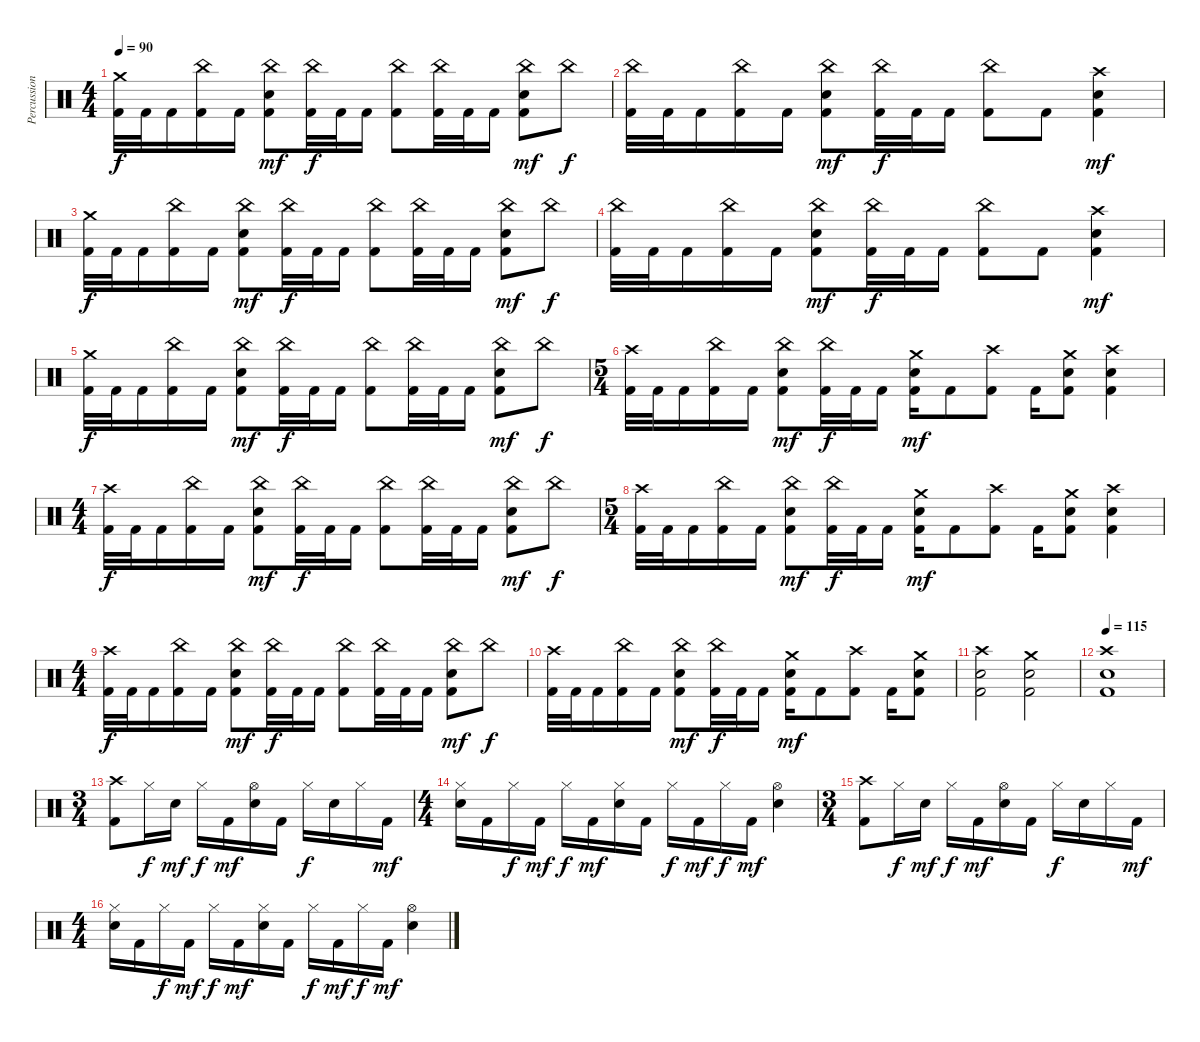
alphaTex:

\track ("Percussion" "Percussion") {instrument percussion}
\staff {score}
\articulation defaults
\ts (4 4)
\tempo 90
\clef neutral
\ks c
("Crash medium (hit)" "Kick (hit) 2").32{dy f} "Kick (hit) 2".32 "Kick (hit) 2".16 ("China (hit)" "Kick (hit) 2").16 "Kick (hit) 2".16 ("China (hit)" "Electric Snare (hit)" "Kick (hit) 2").8{dy mf} ("China (hit)" "Kick (hit) 2").32{dy f} "Kick (hit) 2".32 "Kick (hit) 2".16 ("China (hit)" "Kick (hit) 2").8 ("China (hit)" "Kick (hit) 2").32 "Kick (hit) 2".32 "Kick (hit) 2".16 ("China (hit)" "Electric Snare (hit)" "Kick (hit) 2").8{dy mf} "China (hit)".8{dy f} |
("China (hit)" "Kick (hit) 2").32 "Kick (hit) 2".32 "Kick (hit) 2".16 ("China (hit)" "Kick (hit) 2").16 "Kick (hit) 2".16 ("China (hit)" "Electric Snare (hit)" "Kick (hit) 2").8{dy mf} ("China (hit)" "Kick (hit) 2").32{dy f} "Kick (hit) 2".32 "Kick (hit) 2".16 ("China (hit)" "Kick (hit) 2").8 "Kick (hit) 2".8 ("Crash high (hit)" "Electric Snare (hit)" "Kick (hit) 2").4{dy mf} |
("Crash medium (hit)" "Kick (hit) 2").32{dy f} "Kick (hit) 2".32 "Kick (hit) 2".16 ("China (hit)" "Kick (hit) 2").16 "Kick (hit) 2".16 ("China (hit)" "Electric Snare (hit)" "Kick (hit) 2").8{dy mf} ("China (hit)" "Kick (hit) 2").32{dy f} "Kick (hit) 2".32 "Kick (hit) 2".16 ("China (hit)" "Kick (hit) 2").8 ("China (hit)" "Kick (hit) 2").32 "Kick (hit) 2".32 "Kick (hit) 2".16 ("China (hit)" "Electric Snare (hit)" "Kick (hit) 2").8{dy mf} "China (hit)".8{dy f} |
("China (hit)" "Kick (hit) 2").32 "Kick (hit) 2".32 "Kick (hit) 2".16 ("China (hit)" "Kick (hit) 2").16 "Kick (hit) 2".16 ("China (hit)" "Electric Snare (hit)" "Kick (hit) 2").8{dy mf} ("China (hit)" "Kick (hit) 2").32{dy f} "Kick (hit) 2".32 "Kick (hit) 2".16 ("China (hit)" "Kick (hit) 2").8 "Kick (hit) 2".8 ("Crash high (hit)" "Electric Snare (hit)" "Kick (hit) 2").4{dy mf} |
("Crash medium (hit)" "Kick (hit) 2").32{dy f} "Kick (hit) 2".32 "Kick (hit) 2".16 ("China (hit)" "Kick (hit) 2").16 "Kick (hit) 2".16 ("China (hit)" "Electric Snare (hit)" "Kick (hit) 2").8{dy mf} ("China (hit)" "Kick (hit) 2").32{dy f} "Kick (hit) 2".32 "Kick (hit) 2".16 ("China (hit)" "Kick (hit) 2").8 ("China (hit)" "Kick (hit) 2").32 "Kick (hit) 2".32 "Kick (hit) 2".16 ("China (hit)" "Electric Snare (hit)" "Kick (hit) 2").8{dy mf} "China (hit)".8{dy f} |
\ts (5 4)
("Crash high (hit)" "Kick (hit) 2").32 "Kick (hit) 2".32 "Kick (hit) 2".16 ("China (hit)" "Kick (hit) 2").16 "Kick (hit) 2".16 ("China (hit)" "Electric Snare (hit)" "Kick (hit) 2").8{dy mf} ("China (hit)" "Kick (hit) 2").32{dy f} "Kick (hit) 2".32 "Kick (hit) 2".16 ("Crash medium (hit)" "Electric Snare (hit)" "Kick (hit) 2").16{dy mf} "Kick (hit) 2".8 ("Crash high (hit)" "Kick (hit) 2").8 "Kick (hit) 2".16 ("Crash medium (hit)" "Electric Snare (hit)" "Kick (hit) 2").8 ("Crash high (hit)" "Electric Snare (hit)" "Kick (hit) 2").4 |
\ts (4 4)
("Crash high (hit)" "Kick (hit) 2").32{dy f} "Kick (hit) 2".32 "Kick (hit) 2".16 ("China (hit)" "Kick (hit) 2").16 "Kick (hit) 2".16 ("China (hit)" "Electric Snare (hit)" "Kick (hit) 2").8{dy mf} ("China (hit)" "Kick (hit) 2").32{dy f} "Kick (hit) 2".32 "Kick (hit) 2".16 ("China (hit)" "Kick (hit) 2").8 ("China (hit)" "Kick (hit) 2").32 "Kick (hit) 2".32 "Kick (hit) 2".16 ("China (hit)" "Electric Snare (hit)" "Kick (hit) 2").8{dy mf} "China (hit)".8{dy f} |
\ts (5 4)
("Crash high (hit)" "Kick (hit) 2").32 "Kick (hit) 2".32 "Kick (hit) 2".16 ("China (hit)" "Kick (hit) 2").16 "Kick (hit) 2".16 ("China (hit)" "Electric Snare (hit)" "Kick (hit) 2").8{dy mf} ("China (hit)" "Kick (hit) 2").32{dy f} "Kick (hit) 2".32 "Kick (hit) 2".16 ("Crash medium (hit)" "Electric Snare (hit)" "Kick (hit) 2").16{dy mf} "Kick (hit) 2".8 ("Crash high (hit)" "Kick (hit) 2").8 "Kick (hit) 2".16 ("Crash medium (hit)" "Electric Snare (hit)" "Kick (hit) 2").8 ("Crash high (hit)" "Electric Snare (hit)" "Kick (hit) 2").4 |
\ts (4 4)
("Crash high (hit)" "Kick (hit) 2").32{dy f} "Kick (hit) 2".32 "Kick (hit) 2".16 ("China (hit)" "Kick (hit) 2").16 "Kick (hit) 2".16 ("China (hit)" "Electric Snare (hit)" "Kick (hit) 2").8{dy mf} ("China (hit)" "Kick (hit) 2").32{dy f} "Kick (hit) 2".32 "Kick (hit) 2".16 ("China (hit)" "Kick (hit) 2").8 ("China (hit)" "Kick (hit) 2").32 "Kick (hit) 2".32 "Kick (hit) 2".16 ("China (hit)" "Electric Snare (hit)" "Kick (hit) 2").8{dy mf} "China (hit)".8{dy f} |
("Crash high (hit)" "Kick (hit) 2").32 "Kick (hit) 2".32 "Kick (hit) 2".16 ("China (hit)" "Kick (hit) 2").16 "Kick (hit) 2".16 ("China (hit)" "Electric Snare (hit)" "Kick (hit) 2").8{dy mf} ("China (hit)" "Kick (hit) 2").32{dy f} "Kick (hit) 2".32 "Kick (hit) 2".16 ("Crash medium (hit)" "Electric Snare (hit)" "Kick (hit) 2").16{dy mf} "Kick (hit) 2".8 ("Crash high (hit)" "Kick (hit) 2").8 "Kick (hit) 2".16 ("Crash medium (hit)" "Electric Snare (hit)" "Kick (hit) 2").8 |
("Crash high (hit)" "Electric Snare (hit)" "Kick (hit) 2").2 ("Crash medium (hit)" "Electric Snare (hit)" "Kick (hit) 2").2 |
\tempo 115
("Crash high (hit)" "Electric Snare (hit)" "Kick (hit) 2").1 |
\ts (3 4)
("Crash high (hit)" "Kick (hit) 2").8 "Hi-Hat (closed)".16{dy f} "Electric Snare (hit)".16{dy mf} "Hi-Hat (closed)".16{dy f} "Kick (hit) 2".16{dy mf} ("Hi-Hat (open)" "Electric Snare (hit)").16 "Kick (hit) 2".16 "Hi-Hat (closed)".16{dy f} "Electric Snare (hit)".16 "Hi-Hat (closed)".16 "Kick (hit) 2".16{dy mf} |
\ts (4 4)
("Hi-Hat (closed)" "Electric Snare (hit)").16 "Kick (hit) 2".16 "Hi-Hat (closed)".16{dy f} "Kick (hit) 2".16{dy mf} "Hi-Hat (closed)".16{dy f} "Kick (hit) 2".16{dy mf} ("Hi-Hat (closed)" "Electric Snare (hit)").16 "Kick (hit) 2".16 "Hi-Hat (closed)".16{dy f} "Kick (hit) 2".16{dy mf} "Hi-Hat (closed)".16{dy f} "Kick (hit) 2".16{dy mf} ("Hi-Hat (open)" "Electric Snare (hit)").4 |
\ts (3 4)
("Crash high (hit)" "Kick (hit) 2").8 "Hi-Hat (closed)".16{dy f} "Electric Snare (hit)".16{dy mf} "Hi-Hat (closed)".16{dy f} "Kick (hit) 2".16{dy mf} ("Hi-Hat (open)" "Electric Snare (hit)").16 "Kick (hit) 2".16 "Hi-Hat (closed)".16{dy f} "Electric Snare (hit)".16 "Hi-Hat (closed)".16 "Kick (hit) 2".16{dy mf} |
\ts (4 4)
("Hi-Hat (closed)" "Electric Snare (hit)").16 "Kick (hit) 2".16 "Hi-Hat (closed)".16{dy f} "Kick (hit) 2".16{dy mf} "Hi-Hat (closed)".16{dy f} "Kick (hit) 2".16{dy mf} ("Hi-Hat (closed)" "Electric Snare (hit)").16 "Kick (hit) 2".16 "Hi-Hat (closed)".16{dy f} "Kick (hit) 2".16{dy mf} "Hi-Hat (closed)".16{dy f} "Kick (hit) 2".16{dy mf} ("Hi-Hat (open)" "Electric Snare (hit)").4
